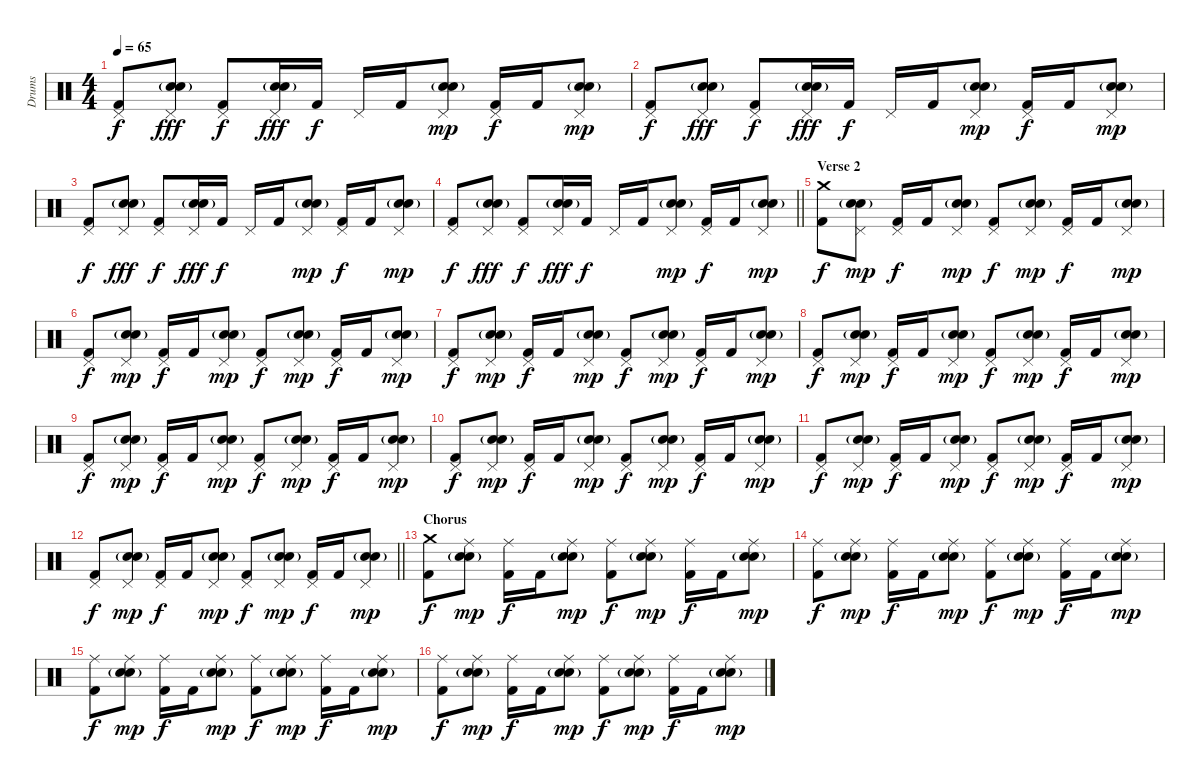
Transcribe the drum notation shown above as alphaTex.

\track ("Drums" "Drums") {instrument percussion}
\staff {score}
\articulation defaults
\ts (4 4)
\tempo 65
\clef neutral
\ks c
("Pedal Hi-Hat (hit)" "Kick (hit) 2").8{dy f} ("Pedal Hi-Hat (hit)" "Snare (hit) 2"{g} "Electric Snare (hit)").8{dy fff} ("Pedal Hi-Hat (hit)" "Kick (hit) 2").8{dy f} ("Pedal Hi-Hat (hit)" "Snare (hit) 2"{g} "Electric Snare (hit)").16{dy fff} "Kick (hit) 2".16{dy f} "Pedal Hi-Hat (hit)".16 "Kick (hit) 2".16 ("Pedal Hi-Hat (hit)" "Snare (hit) 2"{g} "Electric Snare (hit)").8{dy mp} ("Pedal Hi-Hat (hit)" "Kick (hit) 2").16{dy f} "Kick (hit) 2".16 ("Pedal Hi-Hat (hit)" "Snare (hit) 2"{g} "Electric Snare (hit)").8{dy mp} |
("Pedal Hi-Hat (hit)" "Kick (hit) 2").8{dy f} ("Pedal Hi-Hat (hit)" "Snare (hit) 2"{g} "Electric Snare (hit)").8{dy fff} ("Pedal Hi-Hat (hit)" "Kick (hit) 2").8{dy f} ("Pedal Hi-Hat (hit)" "Snare (hit) 2"{g} "Electric Snare (hit)").16{dy fff} "Kick (hit) 2".16{dy f} "Pedal Hi-Hat (hit)".16 "Kick (hit) 2".16 ("Pedal Hi-Hat (hit)" "Snare (hit) 2"{g} "Electric Snare (hit)").8{dy mp} ("Pedal Hi-Hat (hit)" "Kick (hit) 2").16{dy f} "Kick (hit) 2".16 ("Pedal Hi-Hat (hit)" "Snare (hit) 2"{g} "Electric Snare (hit)").8{dy mp} |
("Pedal Hi-Hat (hit)" "Kick (hit) 2").8{dy f} ("Pedal Hi-Hat (hit)" "Snare (hit) 2"{g} "Electric Snare (hit)").8{dy fff} ("Pedal Hi-Hat (hit)" "Kick (hit) 2").8{dy f} ("Pedal Hi-Hat (hit)" "Snare (hit) 2"{g} "Electric Snare (hit)").16{dy fff} "Kick (hit) 2".16{dy f} "Pedal Hi-Hat (hit)".16 "Kick (hit) 2".16 ("Pedal Hi-Hat (hit)" "Snare (hit) 2"{g} "Electric Snare (hit)").8{dy mp} ("Pedal Hi-Hat (hit)" "Kick (hit) 2").16{dy f} "Kick (hit) 2".16 ("Pedal Hi-Hat (hit)" "Snare (hit) 2"{g} "Electric Snare (hit)").8{dy mp} |
\barLineRight lightlight
("Pedal Hi-Hat (hit)" "Kick (hit) 2").8{dy f} ("Pedal Hi-Hat (hit)" "Snare (hit) 2"{g} "Electric Snare (hit)").8{dy fff} ("Pedal Hi-Hat (hit)" "Kick (hit) 2").8{dy f} ("Pedal Hi-Hat (hit)" "Snare (hit) 2"{g} "Electric Snare (hit)").16{dy fff} "Kick (hit) 2".16{dy f} "Pedal Hi-Hat (hit)".16 "Kick (hit) 2".16 ("Pedal Hi-Hat (hit)" "Snare (hit) 2"{g} "Electric Snare (hit)").8{dy mp} ("Pedal Hi-Hat (hit)" "Kick (hit) 2").16{dy f} "Kick (hit) 2".16 ("Pedal Hi-Hat (hit)" "Snare (hit) 2"{g} "Electric Snare (hit)").8{dy mp} |
\section ("" "Verse 2")
("Crash medium (hit)" "Kick (hit) 2").8{dy f} ("Pedal Hi-Hat (hit)" "Snare (hit) 2"{g} "Electric Snare (hit)").8{dy mp} ("Pedal Hi-Hat (hit)" "Kick (hit) 2").16{dy f} "Kick (hit) 2".16 ("Pedal Hi-Hat (hit)" "Snare (hit) 2"{g} "Electric Snare (hit)").8{dy mp} ("Pedal Hi-Hat (hit)" "Kick (hit) 2").8{dy f} ("Pedal Hi-Hat (hit)" "Snare (hit) 2"{g} "Electric Snare (hit)").8{dy mp} ("Pedal Hi-Hat (hit)" "Kick (hit) 2").16{dy f} "Kick (hit) 2".16 ("Pedal Hi-Hat (hit)" "Snare (hit) 2"{g} "Electric Snare (hit)").8{dy mp} |
("Pedal Hi-Hat (hit)" "Kick (hit) 2").8{dy f} ("Pedal Hi-Hat (hit)" "Snare (hit) 2"{g} "Electric Snare (hit)").8{dy mp} ("Pedal Hi-Hat (hit)" "Kick (hit) 2").16{dy f} "Kick (hit) 2".16 ("Pedal Hi-Hat (hit)" "Snare (hit) 2"{g} "Electric Snare (hit)").8{dy mp} ("Pedal Hi-Hat (hit)" "Kick (hit) 2").8{dy f} ("Pedal Hi-Hat (hit)" "Snare (hit) 2"{g} "Electric Snare (hit)").8{dy mp} ("Pedal Hi-Hat (hit)" "Kick (hit) 2").16{dy f} "Kick (hit) 2".16 ("Pedal Hi-Hat (hit)" "Snare (hit) 2"{g} "Electric Snare (hit)").8{dy mp} |
("Pedal Hi-Hat (hit)" "Kick (hit) 2").8{dy f} ("Pedal Hi-Hat (hit)" "Snare (hit) 2"{g} "Electric Snare (hit)").8{dy mp} ("Pedal Hi-Hat (hit)" "Kick (hit) 2").16{dy f} "Kick (hit) 2".16 ("Pedal Hi-Hat (hit)" "Snare (hit) 2"{g} "Electric Snare (hit)").8{dy mp} ("Pedal Hi-Hat (hit)" "Kick (hit) 2").8{dy f} ("Pedal Hi-Hat (hit)" "Snare (hit) 2"{g} "Electric Snare (hit)").8{dy mp} ("Pedal Hi-Hat (hit)" "Kick (hit) 2").16{dy f} "Kick (hit) 2".16 ("Pedal Hi-Hat (hit)" "Snare (hit) 2"{g} "Electric Snare (hit)").8{dy mp} |
("Pedal Hi-Hat (hit)" "Kick (hit) 2").8{dy f} ("Pedal Hi-Hat (hit)" "Snare (hit) 2"{g} "Electric Snare (hit)").8{dy mp} ("Pedal Hi-Hat (hit)" "Kick (hit) 2").16{dy f} "Kick (hit) 2".16 ("Pedal Hi-Hat (hit)" "Snare (hit) 2"{g} "Electric Snare (hit)").8{dy mp} ("Pedal Hi-Hat (hit)" "Kick (hit) 2").8{dy f} ("Pedal Hi-Hat (hit)" "Snare (hit) 2"{g} "Electric Snare (hit)").8{dy mp} ("Pedal Hi-Hat (hit)" "Kick (hit) 2").16{dy f} "Kick (hit) 2".16 ("Pedal Hi-Hat (hit)" "Snare (hit) 2"{g} "Electric Snare (hit)").8{dy mp} |
("Pedal Hi-Hat (hit)" "Kick (hit) 2").8{dy f} ("Pedal Hi-Hat (hit)" "Snare (hit) 2"{g} "Electric Snare (hit)").8{dy mp} ("Pedal Hi-Hat (hit)" "Kick (hit) 2").16{dy f} "Kick (hit) 2".16 ("Pedal Hi-Hat (hit)" "Snare (hit) 2"{g} "Electric Snare (hit)").8{dy mp} ("Pedal Hi-Hat (hit)" "Kick (hit) 2").8{dy f} ("Pedal Hi-Hat (hit)" "Snare (hit) 2"{g} "Electric Snare (hit)").8{dy mp} ("Pedal Hi-Hat (hit)" "Kick (hit) 2").16{dy f} "Kick (hit) 2".16 ("Pedal Hi-Hat (hit)" "Snare (hit) 2"{g} "Electric Snare (hit)").8{dy mp} |
("Pedal Hi-Hat (hit)" "Kick (hit) 2").8{dy f} ("Pedal Hi-Hat (hit)" "Snare (hit) 2"{g} "Electric Snare (hit)").8{dy mp} ("Pedal Hi-Hat (hit)" "Kick (hit) 2").16{dy f} "Kick (hit) 2".16 ("Pedal Hi-Hat (hit)" "Snare (hit) 2"{g} "Electric Snare (hit)").8{dy mp} ("Pedal Hi-Hat (hit)" "Kick (hit) 2").8{dy f} ("Pedal Hi-Hat (hit)" "Snare (hit) 2"{g} "Electric Snare (hit)").8{dy mp} ("Pedal Hi-Hat (hit)" "Kick (hit) 2").16{dy f} "Kick (hit) 2".16 ("Pedal Hi-Hat (hit)" "Snare (hit) 2"{g} "Electric Snare (hit)").8{dy mp} |
("Pedal Hi-Hat (hit)" "Kick (hit) 2").8{dy f} ("Pedal Hi-Hat (hit)" "Snare (hit) 2"{g} "Electric Snare (hit)").8{dy mp} ("Pedal Hi-Hat (hit)" "Kick (hit) 2").16{dy f} "Kick (hit) 2".16 ("Pedal Hi-Hat (hit)" "Snare (hit) 2"{g} "Electric Snare (hit)").8{dy mp} ("Pedal Hi-Hat (hit)" "Kick (hit) 2").8{dy f} ("Pedal Hi-Hat (hit)" "Snare (hit) 2"{g} "Electric Snare (hit)").8{dy mp} ("Pedal Hi-Hat (hit)" "Kick (hit) 2").16{dy f} "Kick (hit) 2".16 ("Pedal Hi-Hat (hit)" "Snare (hit) 2"{g} "Electric Snare (hit)").8{dy mp} |
\barLineRight lightlight
("Pedal Hi-Hat (hit)" "Kick (hit) 2").8{dy f} ("Pedal Hi-Hat (hit)" "Snare (hit) 2"{g} "Electric Snare (hit)").8{dy mp} ("Pedal Hi-Hat (hit)" "Kick (hit) 2").16{dy f} "Kick (hit) 2".16 ("Pedal Hi-Hat (hit)" "Snare (hit) 2"{g} "Electric Snare (hit)").8{dy mp} ("Pedal Hi-Hat (hit)" "Kick (hit) 2").8{dy f} ("Pedal Hi-Hat (hit)" "Snare (hit) 2"{g} "Electric Snare (hit)").8{dy mp} ("Pedal Hi-Hat (hit)" "Kick (hit) 2").16{dy f} "Kick (hit) 2".16 ("Pedal Hi-Hat (hit)" "Snare (hit) 2"{g} "Electric Snare (hit)").8{dy mp} |
\section ("" "Chorus")
("Crash medium (hit)" "Kick (hit) 2").8{dy f} ("Ride (middle)" "Snare (hit) 2"{g} "Electric Snare (hit)").8{dy mp} ("Ride (middle)" "Kick (hit) 2").16{dy f} "Kick (hit) 2".16 ("Ride (middle)" "Snare (hit) 2"{g} "Electric Snare (hit)").8{dy mp} ("Ride (middle)" "Kick (hit) 2").8{dy f} ("Ride (middle)" "Snare (hit) 2"{g} "Electric Snare (hit)").8{dy mp} ("Ride (middle)" "Kick (hit) 2").16{dy f} "Kick (hit) 2".16 ("Ride (middle)" "Snare (hit) 2"{g} "Electric Snare (hit)").8{dy mp} |
("Ride (middle)" "Kick (hit) 2").8{dy f} ("Ride (middle)" "Snare (hit) 2"{g} "Electric Snare (hit)").8{dy mp} ("Ride (middle)" "Kick (hit) 2").16{dy f} "Kick (hit) 2".16 ("Ride (middle)" "Snare (hit) 2"{g} "Electric Snare (hit)").8{dy mp} ("Ride (middle)" "Kick (hit) 2").8{dy f} ("Ride (middle)" "Snare (hit) 2"{g} "Electric Snare (hit)").8{dy mp} ("Ride (middle)" "Kick (hit) 2").16{dy f} "Kick (hit) 2".16 ("Ride (middle)" "Snare (hit) 2"{g} "Electric Snare (hit)").8{dy mp} |
("Ride (middle)" "Kick (hit) 2").8{dy f} ("Ride (middle)" "Snare (hit) 2"{g} "Electric Snare (hit)").8{dy mp} ("Ride (middle)" "Kick (hit) 2").16{dy f} "Kick (hit) 2".16 ("Ride (middle)" "Snare (hit) 2"{g} "Electric Snare (hit)").8{dy mp} ("Ride (middle)" "Kick (hit) 2").8{dy f} ("Ride (middle)" "Snare (hit) 2"{g} "Electric Snare (hit)").8{dy mp} ("Ride (middle)" "Kick (hit) 2").16{dy f} "Kick (hit) 2".16 ("Ride (middle)" "Snare (hit) 2"{g} "Electric Snare (hit)").8{dy mp} |
("Ride (middle)" "Kick (hit) 2").8{dy f} ("Ride (middle)" "Snare (hit) 2"{g} "Electric Snare (hit)").8{dy mp} ("Ride (middle)" "Kick (hit) 2").16{dy f} "Kick (hit) 2".16 ("Ride (middle)" "Snare (hit) 2"{g} "Electric Snare (hit)").8{dy mp} ("Ride (middle)" "Kick (hit) 2").8{dy f} ("Ride (middle)" "Snare (hit) 2"{g} "Electric Snare (hit)").8{dy mp} ("Ride (middle)" "Kick (hit) 2").16{dy f} "Kick (hit) 2".16 ("Ride (middle)" "Snare (hit) 2"{g} "Electric Snare (hit)").8{dy mp}
